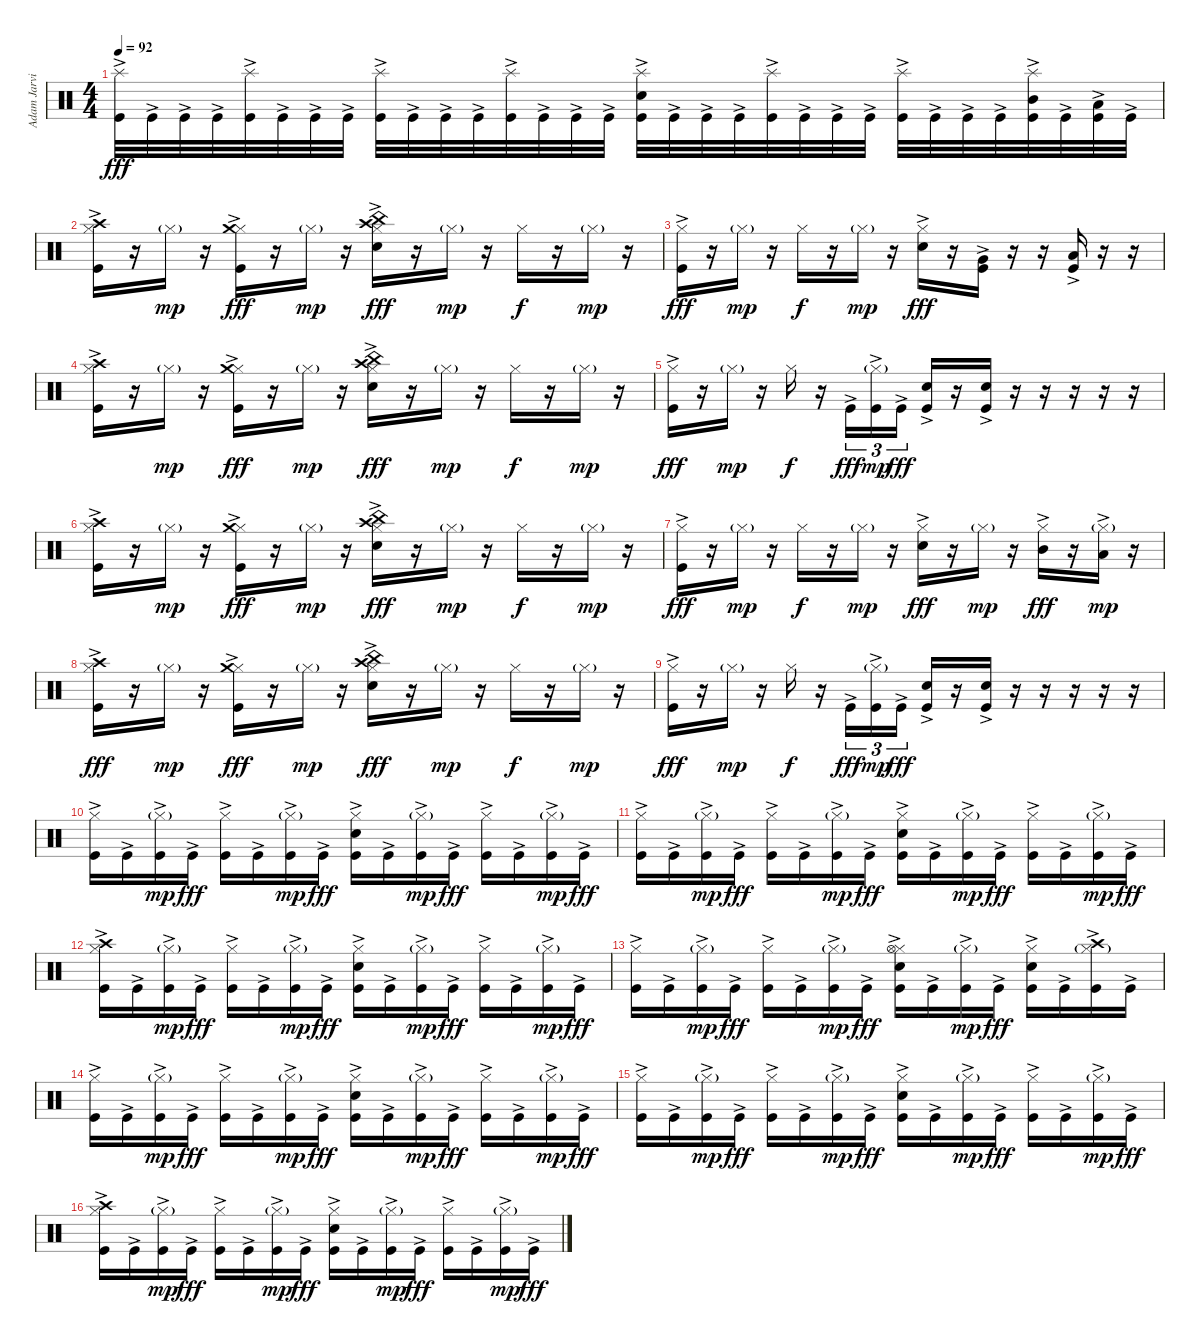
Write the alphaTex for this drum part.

\track ("Adam Jarvis - Drums" "Adam Jarvi") {instrument percussion}
\staff {score}
\articulation defaults
\ts (4 4)
\tempo 92
\clef neutral
\ks c
("Kick (hit)"{ac} "Splash (hit)"{ac}).32{dy fff} "Kick (hit)"{ac}.32 "Kick (hit)"{ac}.32 "Kick (hit)"{ac}.32 ("Kick (hit)"{ac} "Splash (hit)"{ac}).32 "Kick (hit)"{ac}.32 "Kick (hit)"{ac}.32 "Kick (hit)"{ac}.32 ("Kick (hit)"{ac} "Splash (hit)"{ac}).32 "Kick (hit)"{ac}.32 "Kick (hit)"{ac}.32 "Kick (hit)"{ac}.32 ("Kick (hit)"{ac} "Splash (hit)"{ac}).32 "Kick (hit)"{ac}.32 "Kick (hit)"{ac}.32 "Kick (hit)"{ac}.32 ("Kick (hit)"{ac} "Electric Snare (hit)"{ac} "Splash (hit)"{ac}).32 "Kick (hit)"{ac}.32 "Kick (hit)"{ac}.32 "Kick (hit)"{ac}.32 ("Kick (hit)"{ac} "Splash (hit)"{ac}).32 "Kick (hit)"{ac}.32 "Kick (hit)"{ac}.32 "Kick (hit)"{ac}.32 ("Kick (hit)"{ac} "Splash (hit)"{ac}).32 "Kick (hit)"{ac}.32 "Kick (hit)"{ac}.32 "Kick (hit)"{ac}.32 ("Kick (hit)"{ac} "Mid Tom (hit)"{ac} "Splash (hit)"{ac}).32 "Kick (hit)"{ac}.32 ("Kick (hit)"{ac} "Low Tom (hit)"{ac}).32 "Kick (hit)"{ac}.32 |
("Kick (hit)"{ac} "Hi-Hat (closed)" "Crash high (hit)"{ac}).16 r.16 "Hi-Hat (closed)"{g}.16{dy mp} r.16 ("Kick (hit)"{ac} "Hi-Hat (closed)" "Crash medium (hit)"{ac}).16{dy fff} r.16 "Hi-Hat (closed)"{g}.16{dy mp} r.16 ("Electric Snare (hit)"{ac} "Hi-Hat (closed)" "Crash high (hit)"{ac} "China (hit)"{ac}).16{dy fff} r.16 "Hi-Hat (closed)"{g}.16{dy mp} r.16 "Hi-Hat (closed)".16{dy f} r.16 "Hi-Hat (closed)"{g}.16{dy mp} r.16 |
("Kick (hit)"{ac} "Hi-Hat (closed)").16{dy fff} r.16 "Hi-Hat (closed)"{g}.16{dy mp} r.16 "Hi-Hat (closed)".16{dy f} r.16 "Hi-Hat (closed)"{g}.16{dy mp} r.16 ("Electric Snare (hit)"{ac} "Hi-Hat (closed)").16{dy fff} r.16 ("Kick (hit)"{ac} "Very Low Tom (hit)"{ac}).16 r.16 r.16 ("Kick (hit)"{ac} "Low Floor Tom (hit)"{ac}).16 r.16 r.16 |
("Kick (hit)"{ac} "Hi-Hat (closed)" "Crash high (hit)"{ac}).16 r.16 "Hi-Hat (closed)"{g}.16{dy mp} r.16 ("Kick (hit)"{ac} "Hi-Hat (closed)" "Crash medium (hit)"{ac}).16{dy fff} r.16 "Hi-Hat (closed)"{g}.16{dy mp} r.16 ("Electric Snare (hit)"{ac} "Hi-Hat (closed)" "Crash high (hit)"{ac} "China (hit)"{ac}).16{dy fff} r.16 "Hi-Hat (closed)"{g}.16{dy mp} r.16 "Hi-Hat (closed)".16{dy f} r.16 "Hi-Hat (closed)"{g}.16{dy mp} r.16 |
("Kick (hit)"{ac} "Hi-Hat (closed)").16{dy fff} r.16 "Hi-Hat (closed)"{g}.16{dy mp} r.16 "Hi-Hat (closed)".16{dy f} r.16 "Kick (hit)"{ac}.16{tu (3 2) dy fff} ("Kick (hit)"{ac} "Hi-Hat (closed)"{g}).16{tu (3 2) dy mp} "Kick (hit)"{ac}.16{tu (3 2) dy fff} ("Kick (hit)"{ac} "Electric Snare (hit)"{ac}).16 r.16 ("Kick (hit)"{ac} "Electric Snare (hit)"{ac}).16 r.16 r.16{volume 0} r.16 r.16 r.16 |
("Kick (hit)"{ac} "Hi-Hat (closed)" "Crash high (hit)"{ac}).16{volume 16} r.16 "Hi-Hat (closed)"{g}.16{dy mp} r.16 ("Kick (hit)"{ac} "Hi-Hat (closed)" "Crash medium (hit)"{ac}).16{dy fff} r.16 "Hi-Hat (closed)"{g}.16{dy mp} r.16 ("Electric Snare (hit)"{ac} "Hi-Hat (closed)" "Crash high (hit)"{ac} "China (hit)"{ac}).16{dy fff} r.16 "Hi-Hat (closed)"{g}.16{dy mp} r.16 "Hi-Hat (closed)".16{dy f} r.16 "Hi-Hat (closed)"{g}.16{dy mp} r.16 |
("Kick (hit)"{ac} "Hi-Hat (closed)").16{dy fff} r.16 "Hi-Hat (closed)"{g}.16{dy mp} r.16 "Hi-Hat (closed)".16{dy f} r.16 "Hi-Hat (closed)"{g}.16{dy mp} r.16 ("Electric Snare (hit)"{ac} "Hi-Hat (closed)").16{dy fff} r.16 "Hi-Hat (closed)"{g}.16{dy mp} r.16 ("Mid Tom (hit)"{ac} "Hi-Hat (closed)").16{dy fff} r.16 ("Low Tom (hit)"{ac} "Hi-Hat (closed)"{g}).16{dy mp} r.16 |
("Kick (hit)"{ac} "Hi-Hat (closed)" "Crash high (hit)"{ac}).16{dy fff} r.16 "Hi-Hat (closed)"{g}.16{dy mp} r.16 ("Kick (hit)"{ac} "Hi-Hat (closed)" "Crash medium (hit)"{ac}).16{dy fff} r.16 "Hi-Hat (closed)"{g}.16{dy mp} r.16 ("Electric Snare (hit)"{ac} "Hi-Hat (closed)" "Crash high (hit)"{ac} "China (hit)"{ac}).16{dy fff} r.16 "Hi-Hat (closed)"{g}.16{dy mp} r.16 "Hi-Hat (closed)".16{dy f} r.16 "Hi-Hat (closed)"{g}.16{dy mp} r.16 |
("Kick (hit)"{ac} "Hi-Hat (closed)").16{dy fff} r.16 "Hi-Hat (closed)"{g}.16{dy mp} r.16 "Hi-Hat (closed)".16{dy f} r.16 "Kick (hit)"{ac}.16{tu (3 2) dy fff} ("Kick (hit)"{ac} "Hi-Hat (closed)"{g}).16{tu (3 2) dy mp} "Kick (hit)"{ac}.16{tu (3 2) dy fff} ("Kick (hit)"{ac} "Electric Snare (hit)"{ac}).16 r.16 ("Kick (hit)"{ac} "Electric Snare (hit)"{ac}).16 r.16 r.16{volume 0} r.16 r.16 r.16 |
("Kick (hit)"{ac} "Hi-Hat (closed)").16{volume 16} "Kick (hit)"{ac}.16 ("Kick (hit)"{ac} "Hi-Hat (closed)"{g}).16{dy mp} "Kick (hit)"{ac}.16{dy fff} ("Kick (hit)"{ac} "Hi-Hat (closed)").16 "Kick (hit)"{ac}.16 ("Kick (hit)"{ac} "Hi-Hat (closed)"{g}).16{dy mp} "Kick (hit)"{ac}.16{dy fff} ("Kick (hit)"{ac} "Electric Snare (hit)"{ac} "Hi-Hat (closed)").16 "Kick (hit)"{ac}.16 ("Kick (hit)"{ac} "Hi-Hat (closed)"{g}).16{dy mp} "Kick (hit)"{ac}.16{dy fff} ("Kick (hit)"{ac} "Hi-Hat (closed)").16 "Kick (hit)"{ac}.16 ("Kick (hit)"{ac} "Hi-Hat (closed)"{g}).16{dy mp} "Kick (hit)"{ac}.16{dy fff} |
("Kick (hit)"{ac} "Hi-Hat (closed)").16 "Kick (hit)"{ac}.16 ("Kick (hit)"{ac} "Hi-Hat (closed)"{g}).16{dy mp} "Kick (hit)"{ac}.16{dy fff} ("Kick (hit)"{ac} "Hi-Hat (closed)").16 "Kick (hit)"{ac}.16 ("Kick (hit)"{ac} "Hi-Hat (closed)"{g}).16{dy mp} "Kick (hit)"{ac}.16{dy fff} ("Kick (hit)"{ac} "Electric Snare (hit)"{ac} "Hi-Hat (closed)").16 "Kick (hit)"{ac}.16 ("Kick (hit)"{ac} "Hi-Hat (closed)"{g}).16{dy mp} "Kick (hit)"{ac}.16{dy fff} ("Kick (hit)"{ac} "Hi-Hat (closed)").16 "Kick (hit)"{ac}.16 ("Kick (hit)"{ac} "Hi-Hat (closed)"{g}).16{dy mp} "Kick (hit)"{ac}.16{dy fff} |
("Kick (hit)"{ac} "Hi-Hat (closed)" "Crash high (hit)"{ac}).16 "Kick (hit)"{ac}.16 ("Kick (hit)"{ac} "Hi-Hat (closed)"{g}).16{dy mp} "Kick (hit)"{ac}.16{dy fff} ("Kick (hit)"{ac} "Hi-Hat (closed)").16 "Kick (hit)"{ac}.16 ("Kick (hit)"{ac} "Hi-Hat (closed)"{g}).16{dy mp} "Kick (hit)"{ac}.16{dy fff} ("Kick (hit)"{ac} "Electric Snare (hit)"{ac} "Hi-Hat (closed)").16 "Kick (hit)"{ac}.16 ("Kick (hit)"{ac} "Hi-Hat (closed)"{g}).16{dy mp} "Kick (hit)"{ac}.16{dy fff} ("Kick (hit)"{ac} "Hi-Hat (closed)").16 "Kick (hit)"{ac}.16 ("Kick (hit)"{ac} "Hi-Hat (closed)"{g}).16{dy mp} "Kick (hit)"{ac}.16{dy fff} |
("Kick (hit)"{ac} "Hi-Hat (closed)").16 "Kick (hit)"{ac}.16 ("Kick (hit)"{ac} "Hi-Hat (closed)"{g}).16{dy mp} "Kick (hit)"{ac}.16{dy fff} ("Kick (hit)"{ac} "Hi-Hat (closed)").16 "Kick (hit)"{ac}.16 ("Kick (hit)"{ac} "Hi-Hat (closed)"{g}).16{dy mp} "Kick (hit)"{ac}.16{dy fff} ("Kick (hit)"{ac} "Electric Snare (hit)"{ac} "Hi-Hat (closed)" "Hi-Hat (open)"{ac}).16 "Kick (hit)"{ac}.16 ("Kick (hit)"{ac} "Hi-Hat (closed)"{g}).16{dy mp} "Kick (hit)"{ac}.16{dy fff} ("Kick (hit)"{ac} "Electric Snare (hit)"{ac} "Hi-Hat (closed)").16 "Kick (hit)"{ac}.16 ("Kick (hit)"{ac} "Hi-Hat (closed)"{g} "Crash high (hit)"{ac}).16 "Kick (hit)"{ac}.16 |
("Kick (hit)"{ac} "Hi-Hat (closed)").16 "Kick (hit)"{ac}.16 ("Kick (hit)"{ac} "Hi-Hat (closed)"{g}).16{dy mp} "Kick (hit)"{ac}.16{dy fff} ("Kick (hit)"{ac} "Hi-Hat (closed)").16 "Kick (hit)"{ac}.16 ("Kick (hit)"{ac} "Hi-Hat (closed)"{g}).16{dy mp} "Kick (hit)"{ac}.16{dy fff} ("Kick (hit)"{ac} "Electric Snare (hit)"{ac} "Hi-Hat (closed)").16 "Kick (hit)"{ac}.16 ("Kick (hit)"{ac} "Hi-Hat (closed)"{g}).16{dy mp} "Kick (hit)"{ac}.16{dy fff} ("Kick (hit)"{ac} "Hi-Hat (closed)").16 "Kick (hit)"{ac}.16 ("Kick (hit)"{ac} "Hi-Hat (closed)"{g}).16{dy mp} "Kick (hit)"{ac}.16{dy fff} |
("Kick (hit)"{ac} "Hi-Hat (closed)").16 "Kick (hit)"{ac}.16 ("Kick (hit)"{ac} "Hi-Hat (closed)"{g}).16{dy mp} "Kick (hit)"{ac}.16{dy fff} ("Kick (hit)"{ac} "Hi-Hat (closed)").16 "Kick (hit)"{ac}.16 ("Kick (hit)"{ac} "Hi-Hat (closed)"{g}).16{dy mp} "Kick (hit)"{ac}.16{dy fff} ("Kick (hit)"{ac} "Electric Snare (hit)"{ac} "Hi-Hat (closed)").16 "Kick (hit)"{ac}.16 ("Kick (hit)"{ac} "Hi-Hat (closed)"{g}).16{dy mp} "Kick (hit)"{ac}.16{dy fff} ("Kick (hit)"{ac} "Hi-Hat (closed)").16 "Kick (hit)"{ac}.16 ("Kick (hit)"{ac} "Hi-Hat (closed)"{g}).16{dy mp} "Kick (hit)"{ac}.16{dy fff} |
("Kick (hit)"{ac} "Hi-Hat (closed)" "Crash high (hit)"{ac}).16 "Kick (hit)"{ac}.16 ("Kick (hit)"{ac} "Hi-Hat (closed)"{g}).16{dy mp} "Kick (hit)"{ac}.16{dy fff} ("Kick (hit)"{ac} "Hi-Hat (closed)").16 "Kick (hit)"{ac}.16 ("Kick (hit)"{ac} "Hi-Hat (closed)"{g}).16{dy mp} "Kick (hit)"{ac}.16{dy fff} ("Kick (hit)"{ac} "Electric Snare (hit)"{ac} "Hi-Hat (closed)").16 "Kick (hit)"{ac}.16 ("Kick (hit)"{ac} "Hi-Hat (closed)"{g}).16{dy mp} "Kick (hit)"{ac}.16{dy fff} ("Kick (hit)"{ac} "Hi-Hat (closed)").16 "Kick (hit)"{ac}.16 ("Kick (hit)"{ac} "Hi-Hat (closed)"{g}).16{dy mp} "Kick (hit)"{ac}.16{dy fff}
